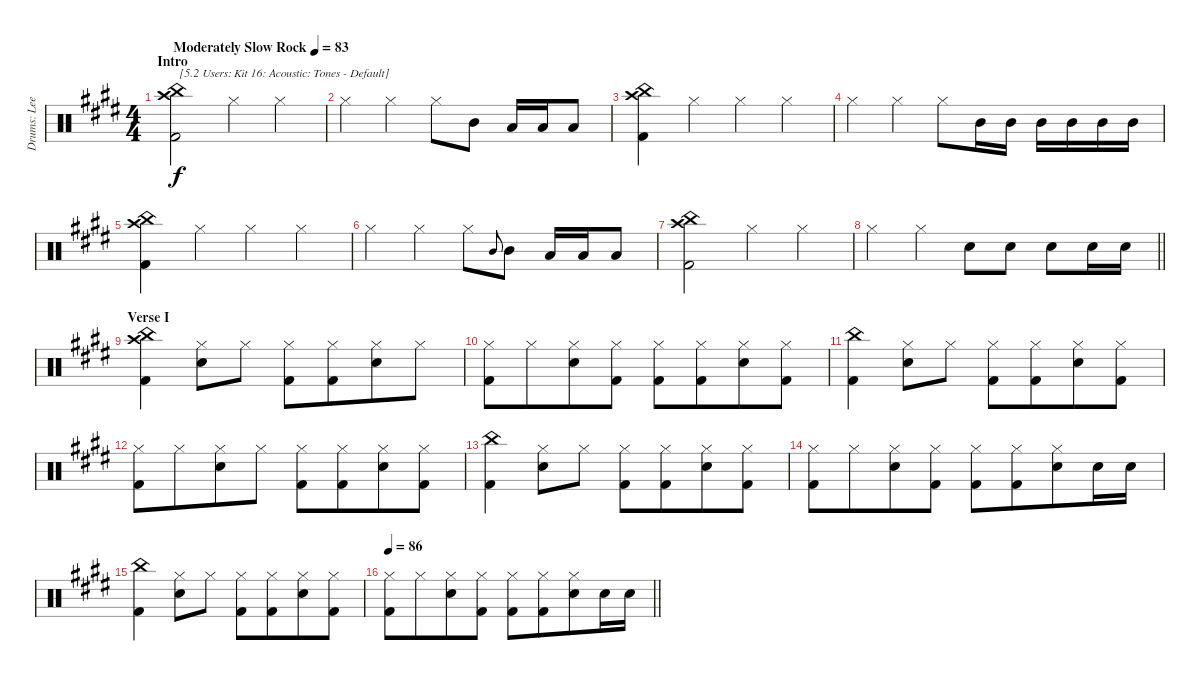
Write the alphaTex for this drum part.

\track ("Drums: Lee" "Drums: Lee") {instrument percussion}
\staff {score}
\articulation defaults
\ts (4 4)
\section ("" "Intro")
\tempo (83 "Moderately Slow Rock")
\clef neutral
\ks e
("Crash high (hit)" "China (hit)" "Kick (hit) 2").2{txt "[5.2 Users: Kit 16: Acoustic: Tones - Default]" dy f} "Hi-Hat (closed)".4 "Hi-Hat (closed)".4 |
\ks c#minor "Hi-Hat (closed)".4 "Hi-Hat (closed)".4 "Hi-Hat (closed)".8 "Mid Tom (hit)".8 "Low Tom (hit)".16 "Low Tom (hit)".16 "Low Tom (hit)".8
|
\ks e
("Crash high (hit)" "China (hit)" "Kick (hit) 2").4 "Hi-Hat (closed)".4 "Hi-Hat (closed)".4 "Hi-Hat (closed)".4 |
\ks c#minor "Hi-Hat (closed)".4 "Hi-Hat (closed)".4 "Hi-Hat (closed)".8 "Mid Tom (hit)".16 "Mid Tom (hit)".16 "Mid Tom (hit)".16 "Mid Tom (hit)".16 "Mid Tom (hit)".16 "Mid Tom (hit)".16
|
\ks e
("Crash high (hit)" "China (hit)" "Kick (hit) 2").4 "Hi-Hat (closed)".4 "Hi-Hat (closed)".4 "Hi-Hat (closed)".4 |
\ks c#minor "Hi-Hat (closed)".4 "Hi-Hat (closed)".4 "Hi-Hat (closed)".8 "Mid Tom (hit)".8{gr onbeat} "Mid Tom (hit)".8 "Low Tom (hit)".16 "Low Tom (hit)".16 "Low Tom (hit)".8
|
\ks e
("Crash high (hit)" "China (hit)" "Kick (hit) 2").2 "Hi-Hat (closed)".4 "Hi-Hat (closed)".4 |
\barLineRight lightlight
\ks c#minor "Hi-Hat (closed)".4 "Hi-Hat (closed)".4 "Snare (hit) 2".8 "Snare (hit) 2".8 "Snare (hit) 2".8 "Snare (hit) 2".16 "Snare (hit) 2".16
|
\section ("" "Verse I")
("Crash high (hit)" "China (hit)" "Kick (hit) 2").4 ("Hi-Hat (closed)" "Snare (hit) 2").8 "Hi-Hat (closed)".8 ("Hi-Hat (closed)" "Kick (hit) 2").8 ("Hi-Hat (closed)" "Kick (hit) 2").8{beam merge} ("Hi-Hat (closed)" "Snare (hit) 2").8 "Hi-Hat (closed)".8 |
("Hi-Hat (closed)" "Kick (hit) 2").8 "Hi-Hat (closed)".8{beam merge} ("Hi-Hat (closed)" "Snare (hit) 2").8 ("Hi-Hat (closed)" "Kick (hit) 2").8 ("Hi-Hat (closed)" "Kick (hit) 2").8 ("Hi-Hat (closed)" "Kick (hit) 2").8{beam merge} ("Hi-Hat (closed)" "Snare (hit) 2").8 ("Hi-Hat (closed)" "Kick (hit) 2").8 |
("China (hit)" "Kick (hit) 2").4 ("Hi-Hat (closed)" "Snare (hit) 2").8 "Hi-Hat (closed)".8 ("Hi-Hat (closed)" "Kick (hit) 2").8 ("Hi-Hat (closed)" "Kick (hit) 2").8{beam merge} ("Hi-Hat (closed)" "Snare (hit) 2").8 ("Hi-Hat (closed)" "Kick (hit) 2").8 |
("Hi-Hat (closed)" "Kick (hit) 2").8 "Hi-Hat (closed)".8{beam merge} ("Hi-Hat (closed)" "Snare (hit) 2").8 "Hi-Hat (closed)".8 ("Hi-Hat (closed)" "Kick (hit) 2").8 ("Hi-Hat (closed)" "Kick (hit) 2").8{beam merge} ("Hi-Hat (closed)" "Snare (hit) 2").8 ("Hi-Hat (closed)" "Kick (hit) 2").8 |
("China (hit)" "Kick (hit) 2").4 ("Hi-Hat (closed)" "Snare (hit) 2").8 "Hi-Hat (closed)".8 ("Hi-Hat (closed)" "Kick (hit) 2").8 ("Hi-Hat (closed)" "Kick (hit) 2").8{beam merge} ("Hi-Hat (closed)" "Snare (hit) 2").8 ("Hi-Hat (closed)" "Kick (hit) 2").8 |
("Hi-Hat (closed)" "Kick (hit) 2").8 "Hi-Hat (closed)".8{beam merge} ("Hi-Hat (closed)" "Snare (hit) 2").8 ("Hi-Hat (closed)" "Kick (hit) 2").8 ("Hi-Hat (closed)" "Kick (hit) 2").8 ("Hi-Hat (closed)" "Kick (hit) 2").8{beam merge} ("Hi-Hat (closed)" "Snare (hit) 2").8 "Snare (hit) 2".16 "Snare (hit) 2".16 |
("China (hit)" "Kick (hit) 2").4 ("Hi-Hat (closed)" "Snare (hit) 2").8 "Hi-Hat (closed)".8 ("Hi-Hat (closed)" "Kick (hit) 2").8 ("Hi-Hat (closed)" "Kick (hit) 2").8{beam merge} ("Hi-Hat (closed)" "Snare (hit) 2").8 ("Hi-Hat (closed)" "Kick (hit) 2").8 |
\tempo 86
\barLineRight lightlight
("Hi-Hat (closed)" "Kick (hit) 2").8 "Hi-Hat (closed)".8{beam merge} ("Hi-Hat (closed)" "Snare (hit) 2").8 ("Hi-Hat (closed)" "Kick (hit) 2").8 ("Hi-Hat (closed)" "Kick (hit) 2").8 ("Hi-Hat (closed)" "Kick (hit) 2").8{beam merge} ("Hi-Hat (closed)" "Snare (hit) 2").8 "Snare (hit) 2".16 "Snare (hit) 2".16
